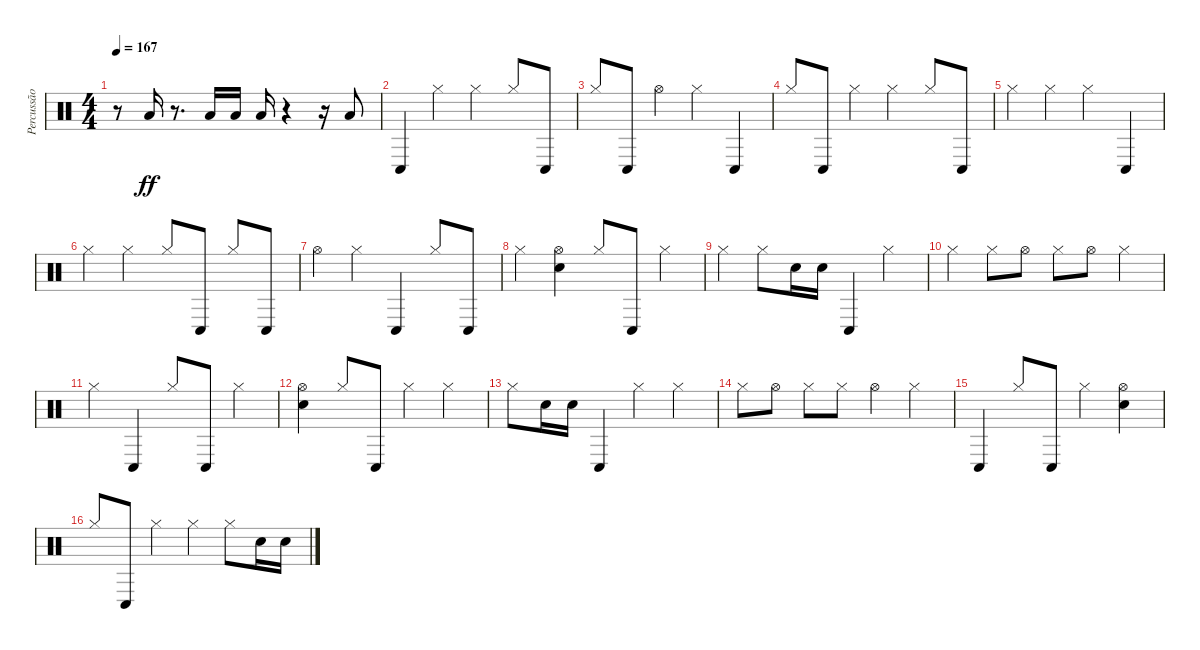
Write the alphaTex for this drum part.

\track ("Percussão" "Percussão") {instrument percussion}
\staff {score}
\articulation defaults
\ts (4 4)
\tempo 167
\clef neutral
\ks c
r.8{dy ff} "Low Tom (hit)".16 r.8{d} "Low Tom (hit)".16 "Low Tom (hit)".16 "Low Tom (hit)".16 r.4 r.16 "Low Tom (hit)".8 |
"Conga low (hit)".4 "Hi-Hat (closed)".4 "Hi-Hat (closed)".4 "Hi-Hat (closed)".8 "Conga low (hit)".8 |
"Hi-Hat (closed)".8 "Conga low (hit)".8 "Hi-Hat (open)".4 "Hi-Hat (closed)".4 "Conga low (hit)".4 |
"Hi-Hat (closed)".8 "Conga low (hit)".8 "Hi-Hat (closed)".4 "Hi-Hat (closed)".4 "Hi-Hat (closed)".8 "Conga low (hit)".8 |
"Hi-Hat (closed)".4 "Hi-Hat (closed)".4 "Hi-Hat (closed)".4 "Conga low (hit)".4 |
"Hi-Hat (closed)".4 "Hi-Hat (closed)".4 "Hi-Hat (closed)".8 "Conga low (hit)".8 "Hi-Hat (closed)".8 "Conga low (hit)".8 |
"Hi-Hat (open)".4 "Hi-Hat (closed)".4 "Conga low (hit)".4 "Hi-Hat (closed)".8 "Conga low (hit)".8 |
"Hi-Hat (closed)".4 ("Electric Snare (hit)" "Hi-Hat (open)").4 "Hi-Hat (closed)".8 "Conga low (hit)".8 "Hi-Hat (closed)".4 |
"Hi-Hat (closed)".4 "Hi-Hat (closed)".8 "Electric Snare (hit)".16 "Electric Snare (hit)".16 "Conga low (hit)".4 "Hi-Hat (closed)".4 |
"Hi-Hat (closed)".4 "Hi-Hat (closed)".8 "Hi-Hat (open)".8 "Hi-Hat (closed)".8 "Hi-Hat (open)".8 "Hi-Hat (closed)".4 |
"Hi-Hat (closed)".4 "Conga low (hit)".4 "Hi-Hat (closed)".8 "Conga low (hit)".8 "Hi-Hat (closed)".4 |
("Electric Snare (hit)" "Hi-Hat (open)").4 "Hi-Hat (closed)".8 "Conga low (hit)".8 "Hi-Hat (closed)".4 "Hi-Hat (closed)".4 |
"Hi-Hat (closed)".8 "Electric Snare (hit)".16 "Electric Snare (hit)".16 "Conga low (hit)".4 "Hi-Hat (closed)".4 "Hi-Hat (closed)".4 |
"Hi-Hat (closed)".8 "Hi-Hat (open)".8 "Hi-Hat (closed)".8 "Hi-Hat (closed)".8 "Hi-Hat (open)".4 "Hi-Hat (closed)".4 |
"Conga low (hit)".4 "Hi-Hat (closed)".8 "Conga low (hit)".8 "Hi-Hat (closed)".4 ("Electric Snare (hit)" "Hi-Hat (open)").4 |
"Hi-Hat (closed)".8 "Conga low (hit)".8 "Hi-Hat (closed)".4 "Hi-Hat (closed)".4 "Hi-Hat (closed)".8 "Electric Snare (hit)".16 "Electric Snare (hit)".16
